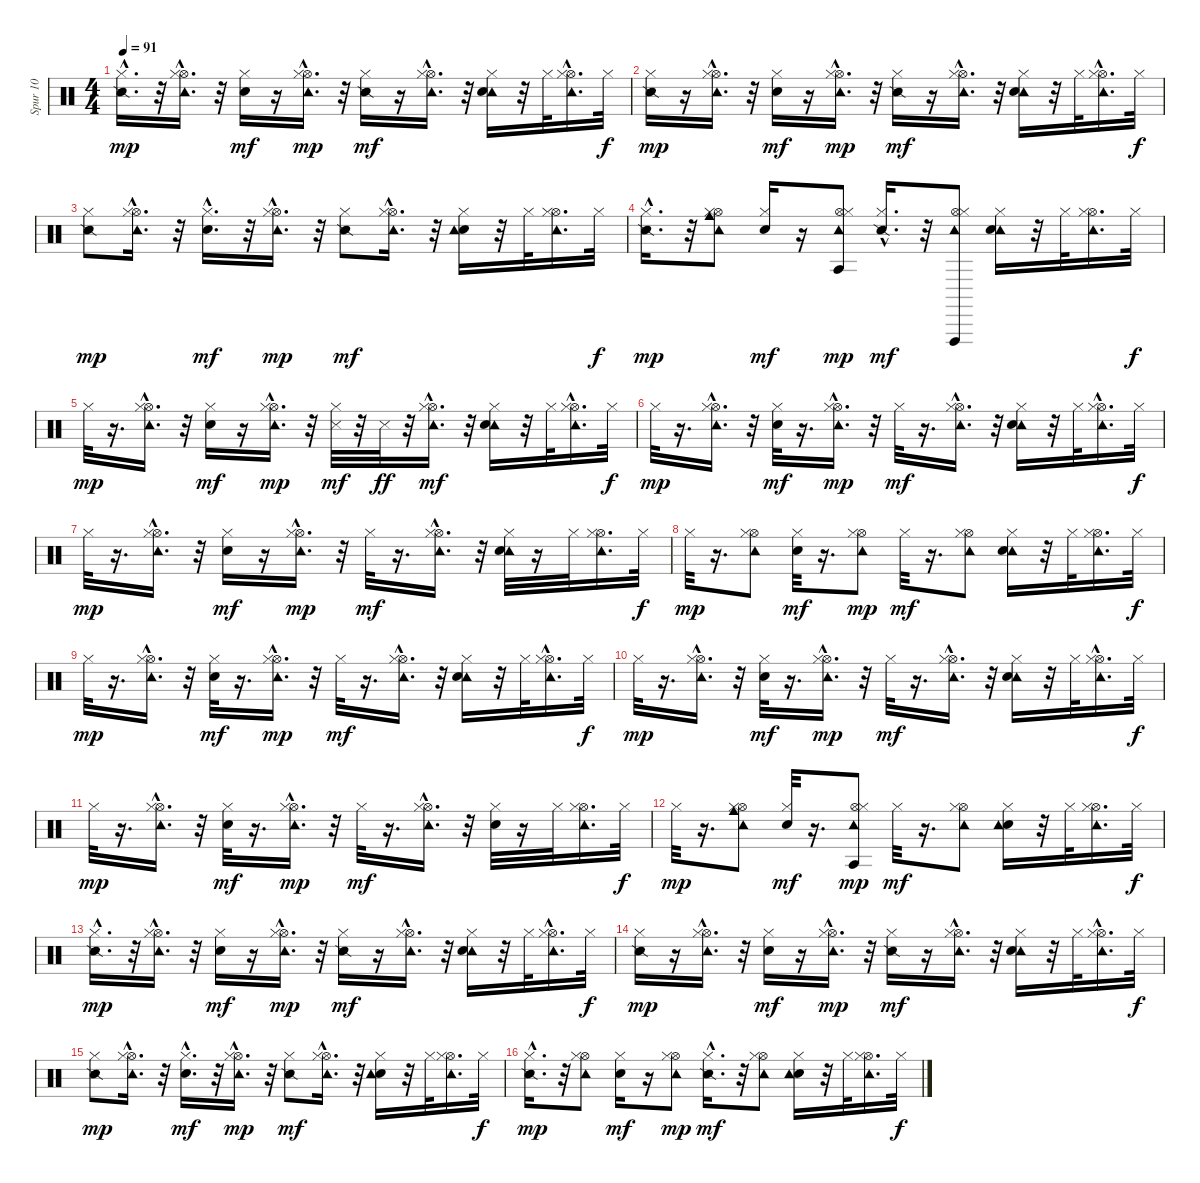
\track ("Spur 10" "Spur 10") {instrument percussion}
\staff {score}
\articulation defaults
\ts (4 4)
\tempo 91
\clef neutral
\ks c
("Snare (side stick) 2"{hac} "Hi-Hat (closed)").16{d dy mp} r.32 ("Tambourine (hit)" "Hi-Hat (open)"{hac} "Hi-Hat (closed)").16{d} r.32 ("Electric Snare (hit)" "Hi-Hat (closed)").16{dy mf} r.16 ("Tambourine (hit)" "Hi-Hat (open)"{hac} "Hi-Hat (closed)").16{d dy mp} r.32 ("Snare (side stick) 2" "Hi-Hat (closed)").16{dy mf} r.16 ("Tambourine (hit)" "Hi-Hat (open)"{hac} "Hi-Hat (closed)").16{d} r.32 ("Tambourine (hit)" "Electric Snare (hit)" "Hi-Hat (closed)").16 r.32 "Hi-Hat (closed)".32 ("Tambourine (hit)" "Hi-Hat (open)"{hac} "Hi-Hat (closed)").16{d} "Hi-Hat (closed)".32{dy f} |
("Snare (side stick) 2" "Hi-Hat (closed)").16{dy mp} r.16 ("Tambourine (hit)" "Hi-Hat (open)"{hac} "Hi-Hat (closed)").16{d} r.32 ("Electric Snare (hit)" "Hi-Hat (closed)").16{dy mf} r.16 ("Tambourine (hit)" "Hi-Hat (open)"{hac} "Hi-Hat (closed)").16{d dy mp} r.32 ("Snare (side stick) 2" "Hi-Hat (closed)").16{dy mf} r.16 ("Tambourine (hit)" "Hi-Hat (open)"{hac} "Hi-Hat (closed)").16{d} r.32 ("Tambourine (hit)" "Electric Snare (hit)" "Hi-Hat (closed)").16 r.32 "Hi-Hat (closed)".32 ("Tambourine (hit)" "Hi-Hat (open)"{hac} "Hi-Hat (closed)").16{d} "Hi-Hat (closed)".32{dy f} |
("Snare (side stick) 2" "Hi-Hat (closed)").8{dy mp} ("Tambourine (hit)" "Hi-Hat (open)"{hac} "Hi-Hat (closed)").16{d} r.32 ("Electric Snare (hit)"{hac} "Hi-Hat (closed)").16{d dy mf} r.32 ("Tambourine (hit)" "Hi-Hat (open)"{hac} "Hi-Hat (closed)").16{d dy mp} r.32 ("Snare (side stick) 2" "Hi-Hat (closed)").8{dy mf} ("Tambourine (hit)" "Hi-Hat (open)"{hac} "Hi-Hat (closed)").16{d} r.32 ("Electric Snare (hit)" "Tambourine (hit)" "Hi-Hat (closed)").16 r.32 "Hi-Hat (closed)".32 ("Tambourine (hit)" "Hi-Hat (open)" "Hi-Hat (closed)").16{d} "Hi-Hat (closed)".32{dy f} |
("Snare (side stick) 2"{hac} "Hi-Hat (closed)").16{d dy mp} r.32 ("Tambourine (hit)" "Hi-Hat (open)" "Cowbell medium (hit)" "Hi-Hat (closed)").8 ("Electric Snare (hit)" "Hi-Hat (closed)").16{dy mf} r.16 ("Tambourine (hit)" "Hi-Hat (open)" "Hi-Hat (closed)" "Agogo tow (hit)").8{dy mp} ("Snare (side stick) 2"{hac} "Hi-Hat (closed)").16{d dy mf} r.32 ("Tambourine (hit)" "Vibraslap (hit)" "Hi-Hat (open)" "Hi-Hat (closed)").8 ("Tambourine (hit)" "Electric Snare (hit)" "Hi-Hat (closed)").16 r.32 "Hi-Hat (closed)".32 ("Tambourine (hit)" "Hi-Hat (open)" "Hi-Hat (closed)").16{d} "Hi-Hat (closed)".32{dy f} |
"Hi-Hat (closed)".32{dy mp} r.16{d} ("Tambourine (hit)" "Hi-Hat (open)"{hac} "Hi-Hat (closed)").16{d} r.32 ("Hand Clap (hit)" "Hi-Hat (closed)").16{dy mf} r.16 ("Tambourine (hit)" "Hi-Hat (open)"{hac} "Hi-Hat (closed)").16{d dy mp} r.32 ("Snare (side stick) 3" "Hi-Hat (closed)").32{dy mf} r.32 "Snare (side stick) 3".32{dy ff} r.32 ("Tambourine (hit)" "Hi-Hat (open)"{hac} "Hi-Hat (closed)").16{d dy mf} r.32 ("Tambourine (hit)" "Hand Clap (hit)" "Hi-Hat (closed)").16 r.32 "Hi-Hat (closed)".32 ("Tambourine (hit)" "Hi-Hat (open)"{hac} "Hi-Hat (closed)").16{d} "Hi-Hat (closed)".32{dy f} |
"Hi-Hat (closed)".32{dy mp} r.16{d} ("Tambourine (hit)" "Hi-Hat (open)"{hac} "Hi-Hat (closed)").16{d} r.32 ("Hand Clap (hit)" "Hi-Hat (closed)").32{dy mf} r.16{d} ("Tambourine (hit)" "Hi-Hat (open)"{hac} "Hi-Hat (closed)").16{d dy mp} r.32 "Hi-Hat (closed)".32{dy mf} r.16{d} ("Tambourine (hit)" "Hi-Hat (open)"{hac} "Hi-Hat (closed)").16{d} r.32 ("Tambourine (hit)" "Hand Clap (hit)" "Hi-Hat (closed)").16 r.32 "Hi-Hat (closed)".32 ("Tambourine (hit)" "Hi-Hat (open)"{hac} "Hi-Hat (closed)").16{d} "Hi-Hat (closed)".32{dy f} |
"Hi-Hat (closed)".32{dy mp} r.16{d} ("Tambourine (hit)" "Hi-Hat (open)"{hac} "Hi-Hat (closed)").16{d} r.32 ("Hand Clap (hit)" "Hi-Hat (closed)").16{dy mf} r.16 ("Tambourine (hit)" "Hi-Hat (open)"{hac} "Hi-Hat (closed)").16{d dy mp} r.32 "Hi-Hat (closed)".32{dy mf} r.16{d} ("Tambourine (hit)" "Hi-Hat (open)"{hac} "Hi-Hat (closed)").16{d} r.32 ("Tambourine (hit)" "Hand Clap (hit)" "Hi-Hat (closed)").32 r.16 "Hi-Hat (closed)".32 ("Tambourine (hit)" "Hi-Hat (open)" "Hi-Hat (closed)").16{d} "Hi-Hat (closed)".32{dy f} |
"Hi-Hat (closed)".32{dy mp} r.16{d} ("Tambourine (hit)" "Hi-Hat (open)" "Hi-Hat (closed)").8 ("Hand Clap (hit)" "Hi-Hat (closed)").32{dy mf} r.16{d} ("Tambourine (hit)" "Hi-Hat (open)" "Hi-Hat (closed)").8{dy mp} "Hi-Hat (closed)".32{dy mf} r.16{d} ("Tambourine (hit)" "Hi-Hat (open)" "Hi-Hat (closed)").8 ("Tambourine (hit)" "Hand Clap (hit)" "Hi-Hat (closed)").16 r.32 "Hi-Hat (closed)".32 ("Tambourine (hit)" "Hi-Hat (open)" "Hi-Hat (closed)").16{d} "Hi-Hat (closed)".32{dy f} |
"Hi-Hat (closed)".32{dy mp} r.16{d} ("Tambourine (hit)" "Hi-Hat (open)"{hac} "Hi-Hat (closed)").16{d} r.32 ("Hand Clap (hit)" "Hi-Hat (closed)").32{dy mf} r.16{d} ("Tambourine (hit)" "Hi-Hat (open)"{hac} "Hi-Hat (closed)").16{d dy mp} r.32 "Hi-Hat (closed)".32{dy mf} r.16{d} ("Tambourine (hit)" "Hi-Hat (open)"{hac} "Hi-Hat (closed)").16{d} r.32 ("Tambourine (hit)" "Hand Clap (hit)" "Hi-Hat (closed)").16 r.32 "Hi-Hat (closed)".32 ("Tambourine (hit)" "Hi-Hat (open)"{hac} "Hi-Hat (closed)").16{d} "Hi-Hat (closed)".32{dy f} |
"Hi-Hat (closed)".32{dy mp} r.16{d} ("Tambourine (hit)" "Hi-Hat (open)"{hac} "Hi-Hat (closed)").16{d} r.32 ("Hand Clap (hit)" "Hi-Hat (closed)").32{dy mf} r.16{d} ("Tambourine (hit)" "Hi-Hat (open)"{hac} "Hi-Hat (closed)").16{d dy mp} r.32 "Hi-Hat (closed)".32{dy mf} r.16{d} ("Tambourine (hit)" "Hi-Hat (open)"{hac} "Hi-Hat (closed)").16{d} r.32 ("Tambourine (hit)" "Hand Clap (hit)" "Hi-Hat (closed)").16 r.32 "Hi-Hat (closed)".32 ("Tambourine (hit)" "Hi-Hat (open)"{hac} "Hi-Hat (closed)").16{d} "Hi-Hat (closed)".32{dy f} |
"Hi-Hat (closed)".32{dy mp} r.16{d} ("Tambourine (hit)" "Hi-Hat (open)"{hac} "Hi-Hat (closed)").16{d} r.32 ("Hand Clap (hit)" "Hi-Hat (closed)").32{dy mf} r.16{d} ("Tambourine (hit)" "Hi-Hat (open)"{hac} "Hi-Hat (closed)").16{d dy mp} r.32 "Hi-Hat (closed)".32{dy mf} r.16{d} ("Tambourine (hit)" "Hi-Hat (open)"{hac} "Hi-Hat (closed)").16{d} r.32 ("Hand Clap (hit)" "Hi-Hat (closed)").32 r.16 "Hi-Hat (closed)".32 ("Tambourine (hit)" "Hi-Hat (open)" "Hi-Hat (closed)").16{d} "Hi-Hat (closed)".32{dy f} |
"Hi-Hat (closed)".32{dy mp} r.16{d} ("Tambourine (hit)" "Hi-Hat (open)" "Cowbell medium (hit)" "Hi-Hat (closed)").8 ("Hand Clap (hit)" "Hi-Hat (closed)").32{dy mf} r.16{d} ("Tambourine (hit)" "Hi-Hat (open)" "Hi-Hat (closed)" "Agogo tow (hit)").8{dy mp} "Hi-Hat (closed)".32{dy mf} r.16{d} ("Tambourine (hit)" "Hi-Hat (open)" "Hi-Hat (closed)").8 ("Hand Clap (hit)" "Tambourine (hit)" "Hi-Hat (closed)").16 r.32 "Hi-Hat (closed)".32 ("Tambourine (hit)" "Hi-Hat (open)" "Hi-Hat (closed)").16{d} "Hi-Hat (closed)".32{dy f} |
("Snare (side stick) 2"{hac} "Hi-Hat (closed)").16{d dy mp} r.32 ("Tambourine (hit)" "Hi-Hat (open)"{hac} "Hi-Hat (closed)").16{d} r.32 ("Electric Snare (hit)" "Hi-Hat (closed)").16{dy mf} r.16 ("Tambourine (hit)" "Hi-Hat (open)"{hac} "Hi-Hat (closed)").16{d dy mp} r.32 ("Snare (side stick) 2" "Hi-Hat (closed)").16{dy mf} r.16 ("Tambourine (hit)" "Hi-Hat (open)"{hac} "Hi-Hat (closed)").16{d} r.32 ("Tambourine (hit)" "Electric Snare (hit)" "Hi-Hat (closed)").16 r.32 "Hi-Hat (closed)".32 ("Tambourine (hit)" "Hi-Hat (open)"{hac} "Hi-Hat (closed)").16{d} "Hi-Hat (closed)".32{dy f} |
("Snare (side stick) 2" "Hi-Hat (closed)").16{dy mp} r.16 ("Tambourine (hit)" "Hi-Hat (open)"{hac} "Hi-Hat (closed)").16{d} r.32 ("Electric Snare (hit)" "Hi-Hat (closed)").16{dy mf} r.16 ("Tambourine (hit)" "Hi-Hat (open)"{hac} "Hi-Hat (closed)").16{d dy mp} r.32 ("Snare (side stick) 2" "Hi-Hat (closed)").16{dy mf} r.16 ("Tambourine (hit)" "Hi-Hat (open)"{hac} "Hi-Hat (closed)").16{d} r.32 ("Tambourine (hit)" "Electric Snare (hit)" "Hi-Hat (closed)").16 r.32 "Hi-Hat (closed)".32 ("Tambourine (hit)" "Hi-Hat (open)"{hac} "Hi-Hat (closed)").16{d} "Hi-Hat (closed)".32{dy f} |
("Snare (side stick) 2" "Hi-Hat (closed)").8{dy mp} ("Tambourine (hit)" "Hi-Hat (open)"{hac} "Hi-Hat (closed)").16{d} r.32 ("Electric Snare (hit)"{hac} "Hi-Hat (closed)").16{d dy mf} r.32 ("Tambourine (hit)" "Hi-Hat (open)"{hac} "Hi-Hat (closed)").16{d dy mp} r.32 ("Snare (side stick) 2" "Hi-Hat (closed)").8{dy mf} ("Tambourine (hit)" "Hi-Hat (open)"{hac} "Hi-Hat (closed)").16{d} r.32 ("Electric Snare (hit)" "Tambourine (hit)" "Hi-Hat (closed)").16 r.32 "Hi-Hat (closed)".32 ("Tambourine (hit)" "Hi-Hat (open)" "Hi-Hat (closed)").16{d} "Hi-Hat (closed)".32{dy f} |
("Snare (side stick) 2"{hac} "Hi-Hat (closed)").16{d dy mp} r.32 ("Tambourine (hit)" "Hi-Hat (open)" "Hi-Hat (closed)").8 ("Electric Snare (hit)" "Hi-Hat (closed)").16{dy mf} r.16 ("Tambourine (hit)" "Hi-Hat (open)" "Hi-Hat (closed)").8{dy mp} ("Snare (side stick) 2"{hac} "Hi-Hat (closed)").16{d dy mf} r.32 ("Tambourine (hit)" "Hi-Hat (open)" "Hi-Hat (closed)").8 ("Electric Snare (hit)" "Tambourine (hit)" "Hi-Hat (closed)").16 r.32 "Hi-Hat (closed)".32 ("Tambourine (hit)" "Hi-Hat (open)" "Hi-Hat (closed)").16{d} "Hi-Hat (closed)".32{dy f}
